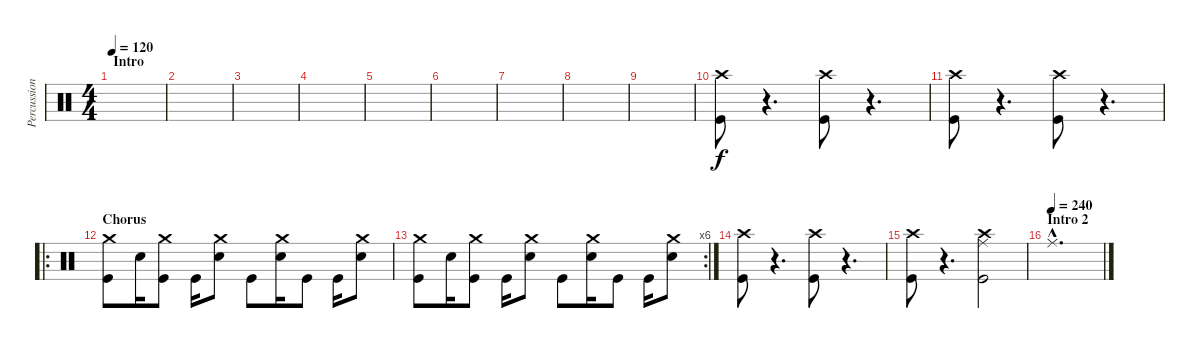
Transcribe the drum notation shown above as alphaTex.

\track ("Percussions" "Percussion") {instrument percussion}
\staff {score}
\articulation defaults
\ts (4 4)
\section ("" "Intro")
\tempo 120
\clef neutral
\ks c
|
|
|
|
|
|
|
|
|
("Crash high (hit)" "Kick (hit)").8 r.4{d} ("Crash high (hit)" "Kick (hit)").8 r.4{d} |
("Crash high (hit)" "Kick (hit)").8 r.4{d} ("Crash high (hit)" "Kick (hit)").8 r.4{d} |
\ro
\section ("" "Chorus")
("Crash medium (hit)" "Kick (hit)").8 "Electric Snare (hit)".16 ("Crash medium (hit)" "Kick (hit)").8 "Kick (hit)".16 ("Crash medium (hit)" "Electric Snare (hit)").8 "Kick (hit)".8 ("Crash medium (hit)" "Electric Snare (hit)").16 "Kick (hit)".8 "Kick (hit)".16 ("Crash medium (hit)" "Electric Snare (hit)").8 |
\rc 6
("Crash medium (hit)" "Kick (hit)").8 "Electric Snare (hit)".16 ("Crash medium (hit)" "Kick (hit)").8 "Kick (hit)".16 ("Crash medium (hit)" "Electric Snare (hit)").8 "Kick (hit)".8 ("Crash medium (hit)" "Electric Snare (hit)").16 "Kick (hit)".8 "Kick (hit)".16 ("Crash medium (hit)" "Electric Snare (hit)").8 |
("Crash high (hit)" "Kick (hit)").8 r.4{d} ("Crash high (hit)" "Kick (hit)").8 r.4{d} |
("Crash high (hit)" "Kick (hit)").8 r.4{d} ("Ride (middle)" "Crash high (hit)" "Kick (hit)").2 |
\section ("" "Intro 2")
\tempo (240)
"Ride (middle)"{hac}.1{d}
